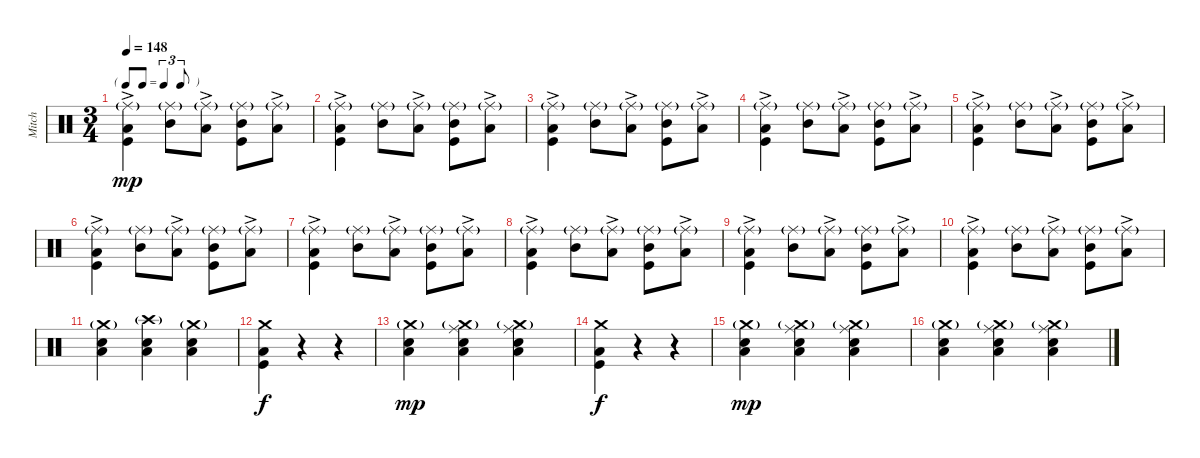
\track ("Mitch" "Mitch") {instrument percussion}
\staff {score}
\articulation defaults
\ts (3 4)
\tf triplet8th
\tempo 148
\clef neutral
\ks c
("Low Floor Tom (hit)"{ac} "Kick (hit)" "Ride (middle)"{g}).4{dy mp} ("Mid Tom (hit)" "Ride (middle)"{g}).8 ("Low Tom (hit)"{ac} "Ride (middle)"{g}).8 ("Mid Tom (hit)" "Kick (hit)" "Ride (middle)"{g}).8 ("Low Tom (hit)"{ac} "Ride (middle)"{g}).8 |
("Low Floor Tom (hit)"{ac} "Kick (hit)" "Ride (middle)"{g}).4 ("Mid Tom (hit)" "Ride (middle)"{g}).8 ("Low Tom (hit)"{ac} "Ride (middle)"{g}).8 ("Mid Tom (hit)" "Kick (hit)" "Ride (middle)"{g}).8 ("Low Tom (hit)"{ac} "Ride (middle)"{g}).8 |
("Low Floor Tom (hit)"{ac} "Kick (hit)" "Ride (middle)"{g}).4 ("Mid Tom (hit)" "Ride (middle)"{g}).8 ("Low Tom (hit)"{ac} "Ride (middle)"{g}).8 ("Mid Tom (hit)" "Kick (hit)" "Ride (middle)"{g}).8 ("Low Tom (hit)"{ac} "Ride (middle)"{g}).8 |
("Low Floor Tom (hit)"{ac} "Kick (hit)" "Ride (middle)"{g}).4 ("Mid Tom (hit)" "Ride (middle)"{g}).8 ("Low Tom (hit)"{ac} "Ride (middle)"{g}).8 ("Mid Tom (hit)" "Kick (hit)" "Ride (middle)"{g}).8 ("Low Tom (hit)"{ac} "Ride (middle)"{g}).8 |
("Low Floor Tom (hit)"{ac} "Kick (hit)" "Ride (middle)"{g}).4 ("Mid Tom (hit)" "Ride (middle)"{g}).8 ("Low Tom (hit)"{ac} "Ride (middle)"{g}).8 ("Mid Tom (hit)" "Kick (hit)" "Ride (middle)"{g}).8 ("Low Tom (hit)"{ac} "Ride (middle)"{g}).8 |
("Low Floor Tom (hit)"{ac} "Kick (hit)" "Ride (middle)"{g}).4 ("Mid Tom (hit)" "Ride (middle)"{g}).8 ("Low Tom (hit)"{ac} "Ride (middle)"{g}).8 ("Mid Tom (hit)" "Kick (hit)" "Ride (middle)"{g}).8 ("Low Tom (hit)"{ac} "Ride (middle)"{g}).8 |
("Low Floor Tom (hit)"{ac} "Kick (hit)" "Ride (middle)"{g}).4 ("Mid Tom (hit)" "Ride (middle)"{g}).8 ("Low Tom (hit)"{ac} "Ride (middle)"{g}).8 ("Mid Tom (hit)" "Kick (hit)" "Ride (middle)"{g}).8 ("Low Tom (hit)"{ac} "Ride (middle)"{g}).8 |
("Low Floor Tom (hit)"{ac} "Kick (hit)" "Ride (middle)"{g}).4 ("Mid Tom (hit)" "Ride (middle)"{g}).8 ("Low Tom (hit)"{ac} "Ride (middle)"{g}).8 ("Mid Tom (hit)" "Kick (hit)" "Ride (middle)"{g}).8 ("Low Tom (hit)"{ac} "Ride (middle)"{g}).8 |
("Low Floor Tom (hit)"{ac} "Kick (hit)" "Ride (middle)"{g}).4 ("Mid Tom (hit)" "Ride (middle)"{g}).8 ("Low Tom (hit)"{ac} "Ride (middle)"{g}).8 ("Mid Tom (hit)" "Kick (hit)" "Ride (middle)"{g}).8 ("Low Tom (hit)"{ac} "Ride (middle)"{g}).8 |
("Low Floor Tom (hit)"{ac} "Kick (hit)" "Ride (middle)"{g}).4 ("Mid Tom (hit)" "Ride (middle)"{g}).8 ("Low Tom (hit)"{ac} "Ride (middle)"{g}).8 ("Mid Tom (hit)" "Kick (hit)" "Ride (middle)"{g}).8 ("Low Tom (hit)"{ac} "Ride (middle)"{g}).8 |
("Snare (hit) 2" "Crash medium (hit)"{g} "Low Tom (hit)").4 ("Snare (hit) 2" "Crash high (hit)"{g} "Low Tom (hit)").4 ("Snare (hit) 2" "Crash medium (hit)"{g} "Low Tom (hit)").4 |
("Low Tom (hit)" "Kick (hit)" "Crash medium (hit)").4{dy f} r.4 r.4 |
("Snare (hit) 2" "Crash medium (hit)"{g} "Low Tom (hit)").4{dy mp} ("Snare (hit) 2" "Crash medium (hit)"{g} "Ride (middle)" "Low Tom (hit)").4 ("Snare (hit) 2" "Crash medium (hit)"{g} "Ride (middle)" "Low Tom (hit)").4 |
("Low Tom (hit)" "Kick (hit)" "Crash medium (hit)").4{dy f} r.4 r.4 |
("Snare (hit) 2" "Crash medium (hit)"{g} "Low Tom (hit)").4{dy mp} ("Snare (hit) 2" "Crash medium (hit)"{g} "Ride (middle)" "Low Tom (hit)").4 ("Snare (hit) 2" "Crash medium (hit)"{g} "Ride (middle)" "Low Tom (hit)").4 |
("Snare (hit) 2" "Crash medium (hit)"{g} "Low Tom (hit)").4 ("Snare (hit) 2" "Crash medium (hit)"{g} "Ride (middle)" "Low Tom (hit)").4 ("Snare (hit) 2" "Crash medium (hit)"{g} "Ride (middle)" "Low Tom (hit)").4
